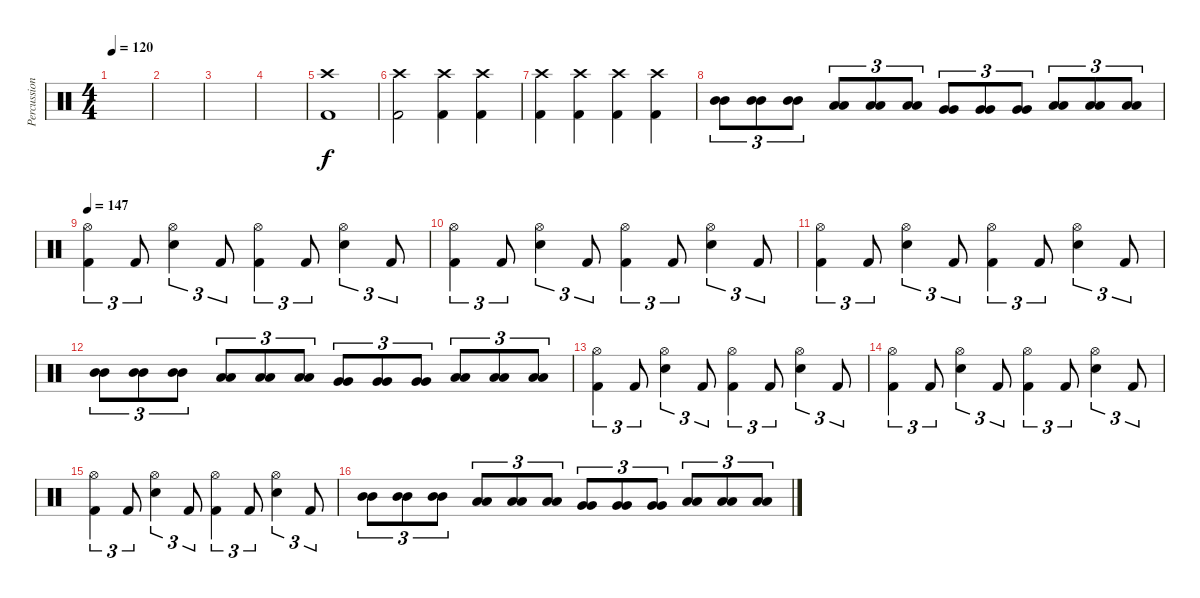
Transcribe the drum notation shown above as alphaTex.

\track ("Percussion" "Percussion") {instrument percussion}
\staff {score}
\articulation defaults
\ts (4 4)
\tempo 120
\tempo 140
\tempo 120
\clef neutral
\ks c
|
|
|
|
("Crash high (hit)" "Kick (hit) 2").1 |
("Crash high (hit)" "Kick (hit) 2").2 ("Crash high (hit)" "Kick (hit) 2").4 ("Crash high (hit)" "Kick (hit) 2").4 |
("Crash high (hit)" "Kick (hit) 2").4 ("Crash high (hit)" "Kick (hit) 2").4 ("Crash high (hit)" "Kick (hit) 2").4 ("Crash high (hit)" "Kick (hit) 2").4 |
("Mid Tom (hit)" "Mid Tom (hit)").8{tu (3 2)} ("Mid Tom (hit)" "Mid Tom (hit)").8{tu (3 2)} ("Mid Tom (hit)" "Mid Tom (hit)").8{tu (3 2)} ("Low Tom (hit)" "Low Tom (hit)").8{tu (3 2)} ("Low Tom (hit)" "Low Tom (hit)").8{tu (3 2)} ("Low Tom (hit)" "Low Tom (hit)").8{tu (3 2)} ("Very Low Tom (hit)" "Very Low Tom (hit)").8{tu (3 2)} ("Very Low Tom (hit)" "Very Low Tom (hit)").8{tu (3 2)} ("Very Low Tom (hit)" "Very Low Tom (hit)").8{tu (3 2)} ("Low Floor Tom (hit)" "Low Floor Tom (hit)").8{tu (3 2)} ("Low Floor Tom (hit)" "Low Floor Tom (hit)").8{tu (3 2)} ("Low Floor Tom (hit)" "Low Floor Tom (hit)").8{tu (3 2)} |
\tempo 147
("Hi-Hat (open)" "Kick (hit) 2").4{tu (3 2)} "Kick (hit) 2".8{tu (3 2)} ("Electric Snare (hit)" "Hi-Hat (open)").4{tu (3 2)} "Kick (hit) 2".8{tu (3 2)} ("Hi-Hat (open)" "Kick (hit) 2").4{tu (3 2)} "Kick (hit) 2".8{tu (3 2)} ("Electric Snare (hit)" "Hi-Hat (open)").4{tu (3 2)} "Kick (hit) 2".8{tu (3 2)} |
("Hi-Hat (open)" "Kick (hit) 2").4{tu (3 2)} "Kick (hit) 2".8{tu (3 2)} ("Electric Snare (hit)" "Hi-Hat (open)").4{tu (3 2)} "Kick (hit) 2".8{tu (3 2)} ("Hi-Hat (open)" "Kick (hit) 2").4{tu (3 2)} "Kick (hit) 2".8{tu (3 2)} ("Electric Snare (hit)" "Hi-Hat (open)").4{tu (3 2)} "Kick (hit) 2".8{tu (3 2)} |
("Hi-Hat (open)" "Kick (hit) 2").4{tu (3 2)} "Kick (hit) 2".8{tu (3 2)} ("Electric Snare (hit)" "Hi-Hat (open)").4{tu (3 2)} "Kick (hit) 2".8{tu (3 2)} ("Hi-Hat (open)" "Kick (hit) 2").4{tu (3 2)} "Kick (hit) 2".8{tu (3 2)} ("Electric Snare (hit)" "Hi-Hat (open)").4{tu (3 2)} "Kick (hit) 2".8{tu (3 2)} |
("Mid Tom (hit)" "Mid Tom (hit)").8{tu (3 2)} ("Mid Tom (hit)" "Mid Tom (hit)").8{tu (3 2)} ("Mid Tom (hit)" "Mid Tom (hit)").8{tu (3 2)} ("Low Tom (hit)" "Low Tom (hit)").8{tu (3 2)} ("Low Tom (hit)" "Low Tom (hit)").8{tu (3 2)} ("Low Tom (hit)" "Low Tom (hit)").8{tu (3 2)} ("Very Low Tom (hit)" "Very Low Tom (hit)").8{tu (3 2)} ("Very Low Tom (hit)" "Very Low Tom (hit)").8{tu (3 2)} ("Very Low Tom (hit)" "Very Low Tom (hit)").8{tu (3 2)} ("Low Floor Tom (hit)" "Low Floor Tom (hit)").8{tu (3 2)} ("Low Floor Tom (hit)" "Low Floor Tom (hit)").8{tu (3 2)} ("Low Floor Tom (hit)" "Low Floor Tom (hit)").8{tu (3 2)} |
("Hi-Hat (open)" "Kick (hit) 2").4{tu (3 2)} "Kick (hit) 2".8{tu (3 2)} ("Electric Snare (hit)" "Hi-Hat (open)").4{tu (3 2)} "Kick (hit) 2".8{tu (3 2)} ("Hi-Hat (open)" "Kick (hit) 2").4{tu (3 2)} "Kick (hit) 2".8{tu (3 2)} ("Electric Snare (hit)" "Hi-Hat (open)").4{tu (3 2)} "Kick (hit) 2".8{tu (3 2)} |
("Hi-Hat (open)" "Kick (hit) 2").4{tu (3 2)} "Kick (hit) 2".8{tu (3 2)} ("Electric Snare (hit)" "Hi-Hat (open)").4{tu (3 2)} "Kick (hit) 2".8{tu (3 2)} ("Hi-Hat (open)" "Kick (hit) 2").4{tu (3 2)} "Kick (hit) 2".8{tu (3 2)} ("Electric Snare (hit)" "Hi-Hat (open)").4{tu (3 2)} "Kick (hit) 2".8{tu (3 2)} |
("Hi-Hat (open)" "Kick (hit) 2").4{tu (3 2)} "Kick (hit) 2".8{tu (3 2)} ("Electric Snare (hit)" "Hi-Hat (open)").4{tu (3 2)} "Kick (hit) 2".8{tu (3 2)} ("Hi-Hat (open)" "Kick (hit) 2").4{tu (3 2)} "Kick (hit) 2".8{tu (3 2)} ("Electric Snare (hit)" "Hi-Hat (open)").4{tu (3 2)} "Kick (hit) 2".8{tu (3 2)} |
("Mid Tom (hit)" "Mid Tom (hit)").8{tu (3 2)} ("Mid Tom (hit)" "Mid Tom (hit)").8{tu (3 2)} ("Mid Tom (hit)" "Mid Tom (hit)").8{tu (3 2)} ("Low Tom (hit)" "Low Tom (hit)").8{tu (3 2)} ("Low Tom (hit)" "Low Tom (hit)").8{tu (3 2)} ("Low Tom (hit)" "Low Tom (hit)").8{tu (3 2)} ("Very Low Tom (hit)" "Very Low Tom (hit)").8{tu (3 2)} ("Very Low Tom (hit)" "Very Low Tom (hit)").8{tu (3 2)} ("Very Low Tom (hit)" "Very Low Tom (hit)").8{tu (3 2)} ("Low Floor Tom (hit)" "Low Floor Tom (hit)").8{tu (3 2)} ("Low Floor Tom (hit)" "Low Floor Tom (hit)").8{tu (3 2)} ("Low Floor Tom (hit)" "Low Floor Tom (hit)").8{tu (3 2)}
